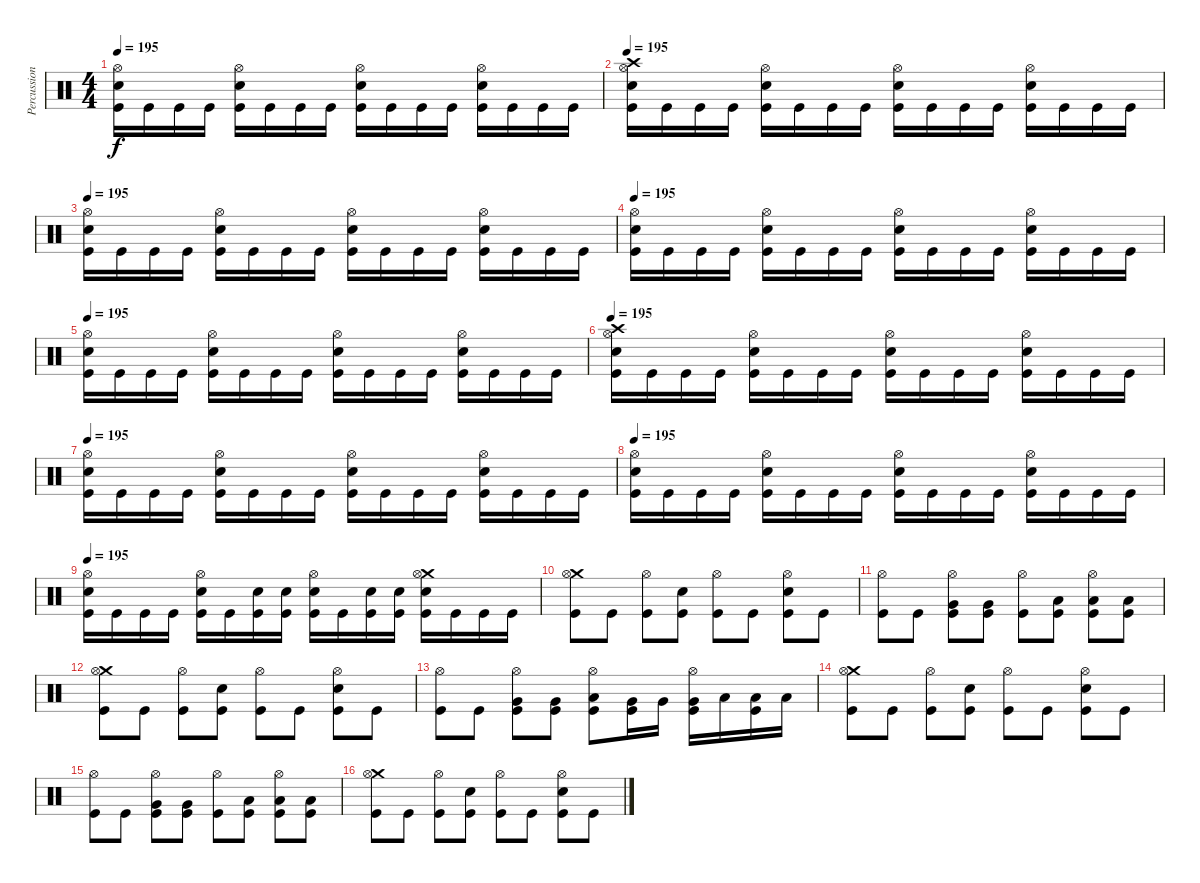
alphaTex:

\track ("Percussion" "Percussion") {instrument percussion}
\staff {score}
\articulation defaults
\ts (4 4)
\tempo 195
\clef neutral
\ks c
("Hi-Hat (open)" "Electric Snare (hit)" "Kick (hit)").16{dy f} "Kick (hit)".16 "Kick (hit)".16 "Kick (hit)".16 ("Hi-Hat (open)" "Electric Snare (hit)" "Kick (hit)").16 "Kick (hit)".16 "Kick (hit)".16 "Kick (hit)".16 ("Hi-Hat (open)" "Electric Snare (hit)" "Kick (hit)").16 "Kick (hit)".16 "Kick (hit)".16 "Kick (hit)".16 ("Hi-Hat (open)" "Electric Snare (hit)" "Kick (hit)").16 "Kick (hit)".16 "Kick (hit)".16 "Kick (hit)".16 |
\tempo 195
("Crash high (hit)" "Hi-Hat (open)" "Electric Snare (hit)" "Kick (hit)").16 "Kick (hit)".16 "Kick (hit)".16 "Kick (hit)".16 ("Hi-Hat (open)" "Electric Snare (hit)" "Kick (hit)").16 "Kick (hit)".16 "Kick (hit)".16 "Kick (hit)".16 ("Hi-Hat (open)" "Electric Snare (hit)" "Kick (hit)").16 "Kick (hit)".16 "Kick (hit)".16 "Kick (hit)".16 ("Hi-Hat (open)" "Electric Snare (hit)" "Kick (hit)").16 "Kick (hit)".16 "Kick (hit)".16 "Kick (hit)".16 |
\tempo 195
("Hi-Hat (open)" "Electric Snare (hit)" "Kick (hit)").16 "Kick (hit)".16 "Kick (hit)".16 "Kick (hit)".16 ("Hi-Hat (open)" "Electric Snare (hit)" "Kick (hit)").16 "Kick (hit)".16 "Kick (hit)".16 "Kick (hit)".16 ("Hi-Hat (open)" "Electric Snare (hit)" "Kick (hit)").16 "Kick (hit)".16 "Kick (hit)".16 "Kick (hit)".16 ("Hi-Hat (open)" "Electric Snare (hit)" "Kick (hit)").16 "Kick (hit)".16 "Kick (hit)".16 "Kick (hit)".16 |
\tempo 195
("Hi-Hat (open)" "Electric Snare (hit)" "Kick (hit)").16 "Kick (hit)".16 "Kick (hit)".16 "Kick (hit)".16 ("Hi-Hat (open)" "Electric Snare (hit)" "Kick (hit)").16 "Kick (hit)".16 "Kick (hit)".16 "Kick (hit)".16 ("Hi-Hat (open)" "Electric Snare (hit)" "Kick (hit)").16 "Kick (hit)".16 "Kick (hit)".16 "Kick (hit)".16 ("Hi-Hat (open)" "Electric Snare (hit)" "Kick (hit)").16 "Kick (hit)".16 "Kick (hit)".16 "Kick (hit)".16 |
\tempo 195
("Hi-Hat (open)" "Electric Snare (hit)" "Kick (hit)").16 "Kick (hit)".16 "Kick (hit)".16 "Kick (hit)".16 ("Hi-Hat (open)" "Electric Snare (hit)" "Kick (hit)").16 "Kick (hit)".16 "Kick (hit)".16 "Kick (hit)".16 ("Hi-Hat (open)" "Electric Snare (hit)" "Kick (hit)").16 "Kick (hit)".16 "Kick (hit)".16 "Kick (hit)".16 ("Hi-Hat (open)" "Electric Snare (hit)" "Kick (hit)").16 "Kick (hit)".16 "Kick (hit)".16 "Kick (hit)".16 |
\tempo 195
("Crash high (hit)" "Hi-Hat (open)" "Electric Snare (hit)" "Kick (hit)").16 "Kick (hit)".16 "Kick (hit)".16 "Kick (hit)".16 ("Hi-Hat (open)" "Electric Snare (hit)" "Kick (hit)").16 "Kick (hit)".16 "Kick (hit)".16 "Kick (hit)".16 ("Hi-Hat (open)" "Electric Snare (hit)" "Kick (hit)").16 "Kick (hit)".16 "Kick (hit)".16 "Kick (hit)".16 ("Hi-Hat (open)" "Electric Snare (hit)" "Kick (hit)").16 "Kick (hit)".16 "Kick (hit)".16 "Kick (hit)".16 |
\tempo 195
("Hi-Hat (open)" "Electric Snare (hit)" "Kick (hit)").16 "Kick (hit)".16 "Kick (hit)".16 "Kick (hit)".16 ("Hi-Hat (open)" "Electric Snare (hit)" "Kick (hit)").16 "Kick (hit)".16 "Kick (hit)".16 "Kick (hit)".16 ("Hi-Hat (open)" "Electric Snare (hit)" "Kick (hit)").16 "Kick (hit)".16 "Kick (hit)".16 "Kick (hit)".16 ("Hi-Hat (open)" "Electric Snare (hit)" "Kick (hit)").16 "Kick (hit)".16 "Kick (hit)".16 "Kick (hit)".16 |
\tempo 195
("Hi-Hat (open)" "Electric Snare (hit)" "Kick (hit)").16 "Kick (hit)".16 "Kick (hit)".16 "Kick (hit)".16 ("Hi-Hat (open)" "Electric Snare (hit)" "Kick (hit)").16 "Kick (hit)".16 "Kick (hit)".16 "Kick (hit)".16 ("Hi-Hat (open)" "Electric Snare (hit)" "Kick (hit)").16 "Kick (hit)".16 "Kick (hit)".16 "Kick (hit)".16 ("Hi-Hat (open)" "Electric Snare (hit)" "Kick (hit)").16 "Kick (hit)".16 "Kick (hit)".16 "Kick (hit)".16 |
\tempo 195
("Hi-Hat (open)" "Electric Snare (hit)" "Kick (hit)").16 "Kick (hit)".16 "Kick (hit)".16 "Kick (hit)".16 ("Hi-Hat (open)" "Electric Snare (hit)" "Kick (hit)").16 "Kick (hit)".16 ("Electric Snare (hit)" "Kick (hit)").16 ("Electric Snare (hit)" "Kick (hit)").16 ("Hi-Hat (open)" "Electric Snare (hit)" "Kick (hit)").16 "Kick (hit)".16 ("Electric Snare (hit)" "Kick (hit)").16 ("Electric Snare (hit)" "Kick (hit)").16 ("Crash medium (hit)" "Hi-Hat (open)" "Electric Snare (hit)" "Kick (hit)").16 "Kick (hit)".16 "Kick (hit)".16 "Kick (hit)".16 |
("Crash medium (hit)" "Hi-Hat (open)" "Kick (hit)").8 "Kick (hit)".8 ("Hi-Hat (open)" "Kick (hit)").8 ("Electric Snare (hit)" "Kick (hit)").8 ("Hi-Hat (open)" "Kick (hit)").8 "Kick (hit)".8 ("Electric Snare (hit)" "Hi-Hat (open)" "Kick (hit)").8 "Kick (hit)".8 |
("Hi-Hat (open)" "Kick (hit)").8 "Kick (hit)".8 ("Very Low Tom (hit)" "Hi-Hat (open)" "Kick (hit)").8 ("Very Low Tom (hit)" "Kick (hit)").8 ("Hi-Hat (open)" "Kick (hit)").8 ("Low Floor Tom (hit)" "Kick (hit)").8 ("Low Floor Tom (hit)" "Hi-Hat (open)" "Kick (hit)").8 ("Low Floor Tom (hit)" "Kick (hit)").8 |
("Crash medium (hit)" "Hi-Hat (open)" "Kick (hit)").8 "Kick (hit)".8 ("Hi-Hat (open)" "Kick (hit)").8 ("Electric Snare (hit)" "Kick (hit)").8 ("Hi-Hat (open)" "Kick (hit)").8 "Kick (hit)".8 ("Electric Snare (hit)" "Hi-Hat (open)" "Kick (hit)").8 "Kick (hit)".8 |
("Hi-Hat (open)" "Kick (hit)").8 "Kick (hit)".8 ("Very Low Tom (hit)" "Hi-Hat (open)" "Kick (hit)").8 ("Very Low Tom (hit)" "Kick (hit)").8 ("Low Tom (hit)" "Hi-Hat (open)" "Kick (hit)").8 ("Very Low Tom (hit)" "Kick (hit)").16 "Very Low Tom (hit)".16 ("Very Low Tom (hit)" "Hi-Hat (open)" "Kick (hit)").16 "Low Floor Tom (hit)".16 ("Low Floor Tom (hit)" "Kick (hit)").16 "Low Floor Tom (hit)".16 |
("Crash medium (hit)" "Hi-Hat (open)" "Kick (hit)").8 "Kick (hit)".8 ("Hi-Hat (open)" "Kick (hit)").8 ("Electric Snare (hit)" "Kick (hit)").8 ("Hi-Hat (open)" "Kick (hit)").8 "Kick (hit)".8 ("Electric Snare (hit)" "Hi-Hat (open)" "Kick (hit)").8 "Kick (hit)".8 |
("Hi-Hat (open)" "Kick (hit)").8 "Kick (hit)".8 ("Very Low Tom (hit)" "Hi-Hat (open)" "Kick (hit)").8 ("Very Low Tom (hit)" "Kick (hit)").8 ("Hi-Hat (open)" "Kick (hit)").8 ("Low Floor Tom (hit)" "Kick (hit)").8 ("Low Floor Tom (hit)" "Hi-Hat (open)" "Kick (hit)").8 ("Low Floor Tom (hit)" "Kick (hit)").8 |
("Crash medium (hit)" "Hi-Hat (open)" "Kick (hit)").8 "Kick (hit)".8 ("Hi-Hat (open)" "Kick (hit)").8 ("Electric Snare (hit)" "Kick (hit)").8 ("Hi-Hat (open)" "Kick (hit)").8 "Kick (hit)".8 ("Electric Snare (hit)" "Hi-Hat (open)" "Kick (hit)").8 "Kick (hit)".8
